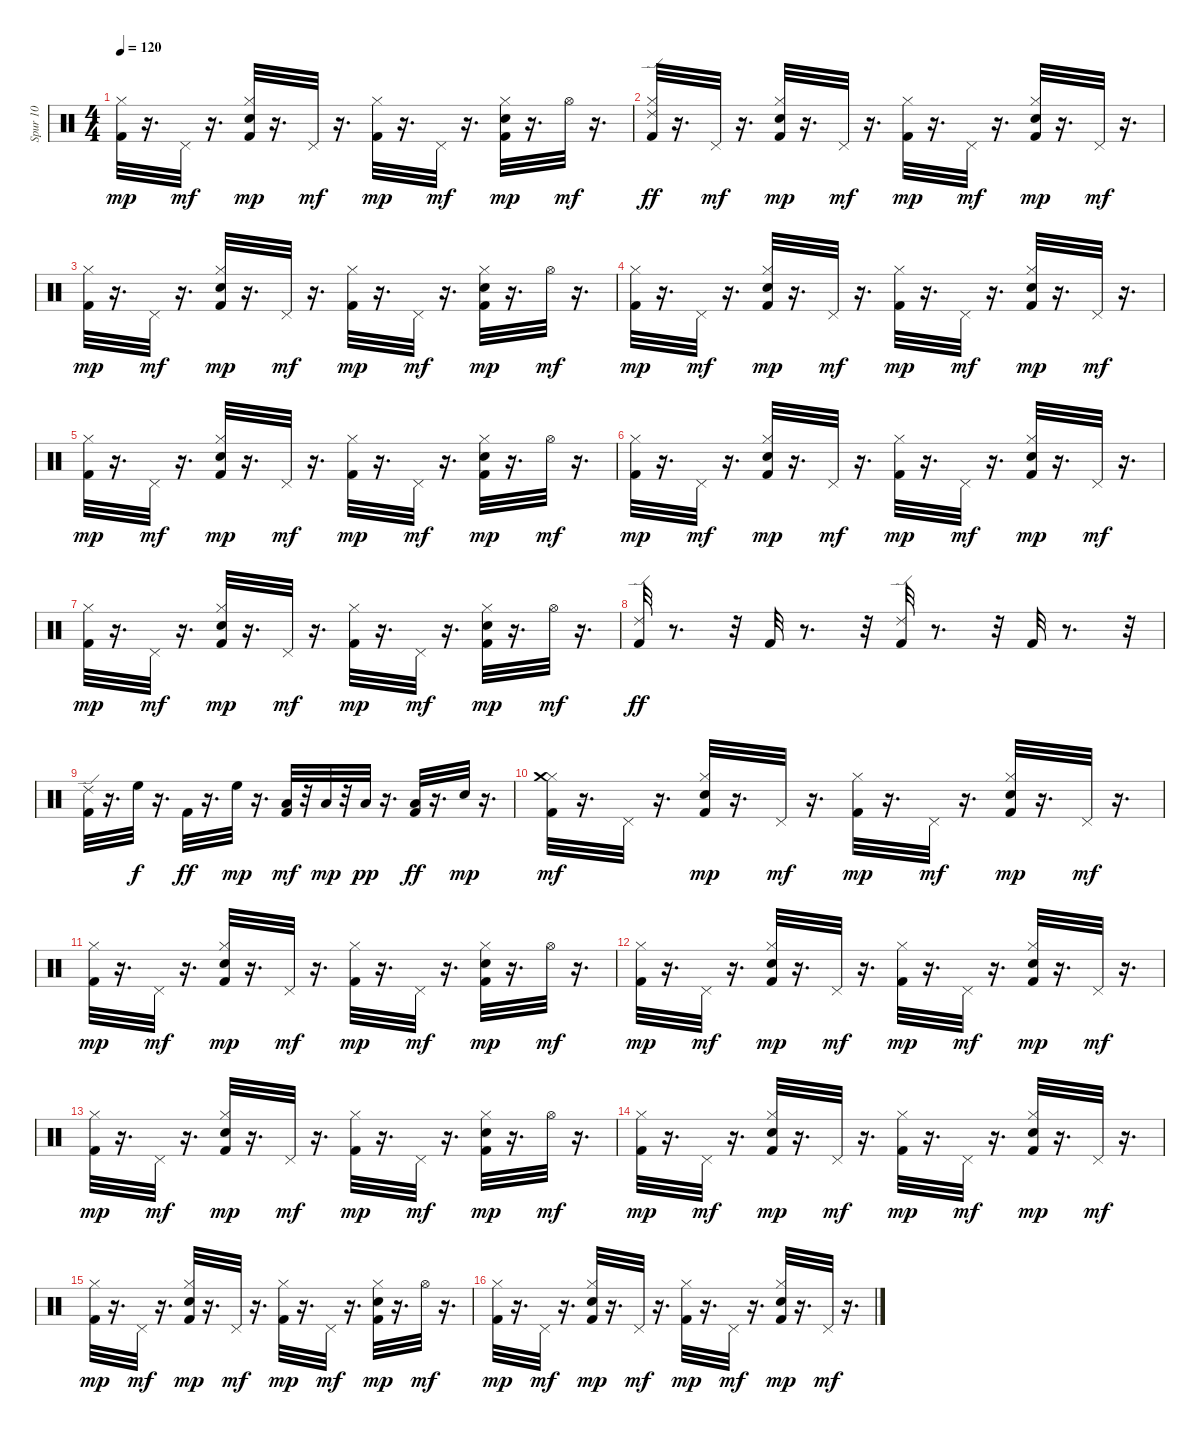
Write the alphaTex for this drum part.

\track ("Spur 10" "Spur 10") {instrument percussion}
\staff {score}
\articulation defaults
\ts (4 4)
\tempo 120
\clef neutral
\ks c
("Kick (hit) 2" "Hi-Hat (closed)").32{dy mp} r.16{d} "Pedal Hi-Hat (hit)".32{dy mf} r.16{d} ("Kick (hit) 2" "Electric Snare (hit)" "Hi-Hat (closed)").32{dy mp} r.16{d} "Pedal Hi-Hat (hit)".32{dy mf} r.16{d} ("Kick (hit) 2" "Hi-Hat (closed)").32{dy mp} r.16{d} "Pedal Hi-Hat (hit)".32{dy mf} r.16{d} ("Kick (hit) 2" "Electric Snare (hit)" "Hi-Hat (closed)").32{dy mp} r.16{d} "Hi-Hat (open)".32{dy mf} r.16{d} |
("Ride (edge) 2" "Hi-Hat (closed)" "Kick (hit) 2").32{dy ff} r.16{d} "Pedal Hi-Hat (hit)".32{dy mf} r.16{d} ("Hi-Hat (closed)" "Kick (hit) 2" "Electric Snare (hit)").32{dy mp} r.16{d} "Pedal Hi-Hat (hit)".32{dy mf} r.16{d} ("Kick (hit) 2" "Hi-Hat (closed)").32{dy mp} r.16{d} "Pedal Hi-Hat (hit)".32{dy mf} r.16{d} ("Kick (hit) 2" "Electric Snare (hit)" "Hi-Hat (closed)").32{dy mp} r.16{d} "Pedal Hi-Hat (hit)".32{dy mf} r.16{d} |
("Kick (hit) 2" "Hi-Hat (closed)").32{dy mp} r.16{d} "Pedal Hi-Hat (hit)".32{dy mf} r.16{d} ("Kick (hit) 2" "Electric Snare (hit)" "Hi-Hat (closed)").32{dy mp} r.16{d} "Pedal Hi-Hat (hit)".32{dy mf} r.16{d} ("Kick (hit) 2" "Hi-Hat (closed)").32{dy mp} r.16{d} "Pedal Hi-Hat (hit)".32{dy mf} r.16{d} ("Kick (hit) 2" "Electric Snare (hit)" "Hi-Hat (closed)").32{dy mp} r.16{d} "Hi-Hat (open)".32{dy mf} r.16{d} |
("Kick (hit) 2" "Hi-Hat (closed)").32{dy mp} r.16{d} "Pedal Hi-Hat (hit)".32{dy mf} r.16{d} ("Kick (hit) 2" "Electric Snare (hit)" "Hi-Hat (closed)").32{dy mp} r.16{d} "Pedal Hi-Hat (hit)".32{dy mf} r.16{d} ("Kick (hit) 2" "Hi-Hat (closed)").32{dy mp} r.16{d} "Pedal Hi-Hat (hit)".32{dy mf} r.16{d} ("Kick (hit) 2" "Electric Snare (hit)" "Hi-Hat (closed)").32{dy mp} r.16{d} "Pedal Hi-Hat (hit)".32{dy mf} r.16{d} |
("Kick (hit) 2" "Hi-Hat (closed)").32{dy mp} r.16{d} "Pedal Hi-Hat (hit)".32{dy mf} r.16{d} ("Kick (hit) 2" "Electric Snare (hit)" "Hi-Hat (closed)").32{dy mp} r.16{d} "Pedal Hi-Hat (hit)".32{dy mf} r.16{d} ("Kick (hit) 2" "Hi-Hat (closed)").32{dy mp} r.16{d} "Pedal Hi-Hat (hit)".32{dy mf} r.16{d} ("Kick (hit) 2" "Electric Snare (hit)" "Hi-Hat (closed)").32{dy mp} r.16{d} "Hi-Hat (open)".32{dy mf} r.16{d} |
("Kick (hit) 2" "Hi-Hat (closed)").32{dy mp} r.16{d} "Pedal Hi-Hat (hit)".32{dy mf} r.16{d} ("Kick (hit) 2" "Electric Snare (hit)" "Hi-Hat (closed)").32{dy mp} r.16{d} "Pedal Hi-Hat (hit)".32{dy mf} r.16{d} ("Kick (hit) 2" "Hi-Hat (closed)").32{dy mp} r.16{d} "Pedal Hi-Hat (hit)".32{dy mf} r.16{d} ("Kick (hit) 2" "Electric Snare (hit)" "Hi-Hat (closed)").32{dy mp} r.16{d} "Pedal Hi-Hat (hit)".32{dy mf} r.16{d} |
("Kick (hit) 2" "Hi-Hat (closed)").32{dy mp} r.16{d} "Pedal Hi-Hat (hit)".32{dy mf} r.16{d} ("Kick (hit) 2" "Electric Snare (hit)" "Hi-Hat (closed)").32{dy mp} r.16{d} "Pedal Hi-Hat (hit)".32{dy mf} r.16{d} ("Kick (hit) 2" "Hi-Hat (closed)").32{dy mp} r.16{d} "Pedal Hi-Hat (hit)".32{dy mf} r.16{d} ("Kick (hit) 2" "Electric Snare (hit)" "Hi-Hat (closed)").32{dy mp} r.16{d} "Hi-Hat (open)".32{dy mf} r.16{d} |
("Ride (edge) 2" "Kick (hit) 2").32{dy ff} r.8{d} r.32 "Kick (hit) 2".32 r.8{d} r.32 ("Kick (hit) 2" "Ride (edge) 2").32 r.8{d} r.32 "Kick (hit) 2".32 r.8{d} r.32 |
("Ride (edge) 2" "Kick (hit) 2").32 r.16{d} "High Floor Tom (hit)".32{dy f} r.16{d} "Kick (hit) 2".32{dy ff} r.16{d} "High Floor Tom (hit)".32{dy mp} r.16{d} ("Kick (hit) 2" "Low Tom (hit)").32{dy mf} r.32 "Low Tom (hit)".32{dy mp} r.32 "Low Tom (hit)".32{dy pp} r.16{d} ("Kick (hit) 2" "Low Floor Tom (hit)").32{dy ff} r.16{d} "Electric Snare (hit)".32{dy mp} r.16{d} |
("Kick (hit) 2" "Hi-Hat (closed)" "Crash medium (hit)").32{dy mf} r.16{d} "Pedal Hi-Hat (hit)".32 r.16{d} ("Electric Snare (hit)" "Kick (hit) 2" "Hi-Hat (closed)").32{dy mp} r.16{d} "Pedal Hi-Hat (hit)".32{dy mf} r.16{d} ("Kick (hit) 2" "Hi-Hat (closed)").32{dy mp} r.16{d} "Pedal Hi-Hat (hit)".32{dy mf} r.16{d} ("Kick (hit) 2" "Electric Snare (hit)" "Hi-Hat (closed)").32{dy mp} r.16{d} "Pedal Hi-Hat (hit)".32{dy mf} r.16{d} |
("Kick (hit) 2" "Hi-Hat (closed)").32{dy mp} r.16{d} "Pedal Hi-Hat (hit)".32{dy mf} r.16{d} ("Kick (hit) 2" "Electric Snare (hit)" "Hi-Hat (closed)").32{dy mp} r.16{d} "Pedal Hi-Hat (hit)".32{dy mf} r.16{d} ("Kick (hit) 2" "Hi-Hat (closed)").32{dy mp} r.16{d} "Pedal Hi-Hat (hit)".32{dy mf} r.16{d} ("Kick (hit) 2" "Electric Snare (hit)" "Hi-Hat (closed)").32{dy mp} r.16{d} "Hi-Hat (open)".32{dy mf} r.16{d} |
("Kick (hit) 2" "Hi-Hat (closed)").32{dy mp} r.16{d} "Pedal Hi-Hat (hit)".32{dy mf} r.16{d} ("Kick (hit) 2" "Electric Snare (hit)" "Hi-Hat (closed)").32{dy mp} r.16{d} "Pedal Hi-Hat (hit)".32{dy mf} r.16{d} ("Kick (hit) 2" "Hi-Hat (closed)").32{dy mp} r.16{d} "Pedal Hi-Hat (hit)".32{dy mf} r.16{d} ("Kick (hit) 2" "Electric Snare (hit)" "Hi-Hat (closed)").32{dy mp} r.16{d} "Pedal Hi-Hat (hit)".32{dy mf} r.16{d} |
("Kick (hit) 2" "Hi-Hat (closed)").32{dy mp} r.16{d} "Pedal Hi-Hat (hit)".32{dy mf} r.16{d} ("Kick (hit) 2" "Electric Snare (hit)" "Hi-Hat (closed)").32{dy mp} r.16{d} "Pedal Hi-Hat (hit)".32{dy mf} r.16{d} ("Kick (hit) 2" "Hi-Hat (closed)").32{dy mp} r.16{d} "Pedal Hi-Hat (hit)".32{dy mf} r.16{d} ("Kick (hit) 2" "Electric Snare (hit)" "Hi-Hat (closed)").32{dy mp} r.16{d} "Hi-Hat (open)".32{dy mf} r.16{d} |
("Kick (hit) 2" "Hi-Hat (closed)").32{dy mp} r.16{d} "Pedal Hi-Hat (hit)".32{dy mf} r.16{d} ("Kick (hit) 2" "Electric Snare (hit)" "Hi-Hat (closed)").32{dy mp} r.16{d} "Pedal Hi-Hat (hit)".32{dy mf} r.16{d} ("Kick (hit) 2" "Hi-Hat (closed)").32{dy mp} r.16{d} "Pedal Hi-Hat (hit)".32{dy mf} r.16{d} ("Kick (hit) 2" "Electric Snare (hit)" "Hi-Hat (closed)").32{dy mp} r.16{d} "Pedal Hi-Hat (hit)".32{dy mf} r.16{d} |
("Kick (hit) 2" "Hi-Hat (closed)").32{dy mp} r.16{d} "Pedal Hi-Hat (hit)".32{dy mf} r.16{d} ("Kick (hit) 2" "Electric Snare (hit)" "Hi-Hat (closed)").32{dy mp} r.16{d} "Pedal Hi-Hat (hit)".32{dy mf} r.16{d} ("Kick (hit) 2" "Hi-Hat (closed)").32{dy mp} r.16{d} "Pedal Hi-Hat (hit)".32{dy mf} r.16{d} ("Kick (hit) 2" "Electric Snare (hit)" "Hi-Hat (closed)").32{dy mp} r.16{d} "Hi-Hat (open)".32{dy mf} r.16{d} |
("Kick (hit) 2" "Hi-Hat (closed)").32{dy mp} r.16{d} "Pedal Hi-Hat (hit)".32{dy mf} r.16{d} ("Kick (hit) 2" "Electric Snare (hit)" "Hi-Hat (closed)").32{dy mp} r.16{d} "Pedal Hi-Hat (hit)".32{dy mf} r.16{d} ("Kick (hit) 2" "Hi-Hat (closed)").32{dy mp} r.16{d} "Pedal Hi-Hat (hit)".32{dy mf} r.16{d} ("Kick (hit) 2" "Electric Snare (hit)" "Hi-Hat (closed)").32{dy mp} r.16{d} "Pedal Hi-Hat (hit)".32{dy mf} r.16{d}
